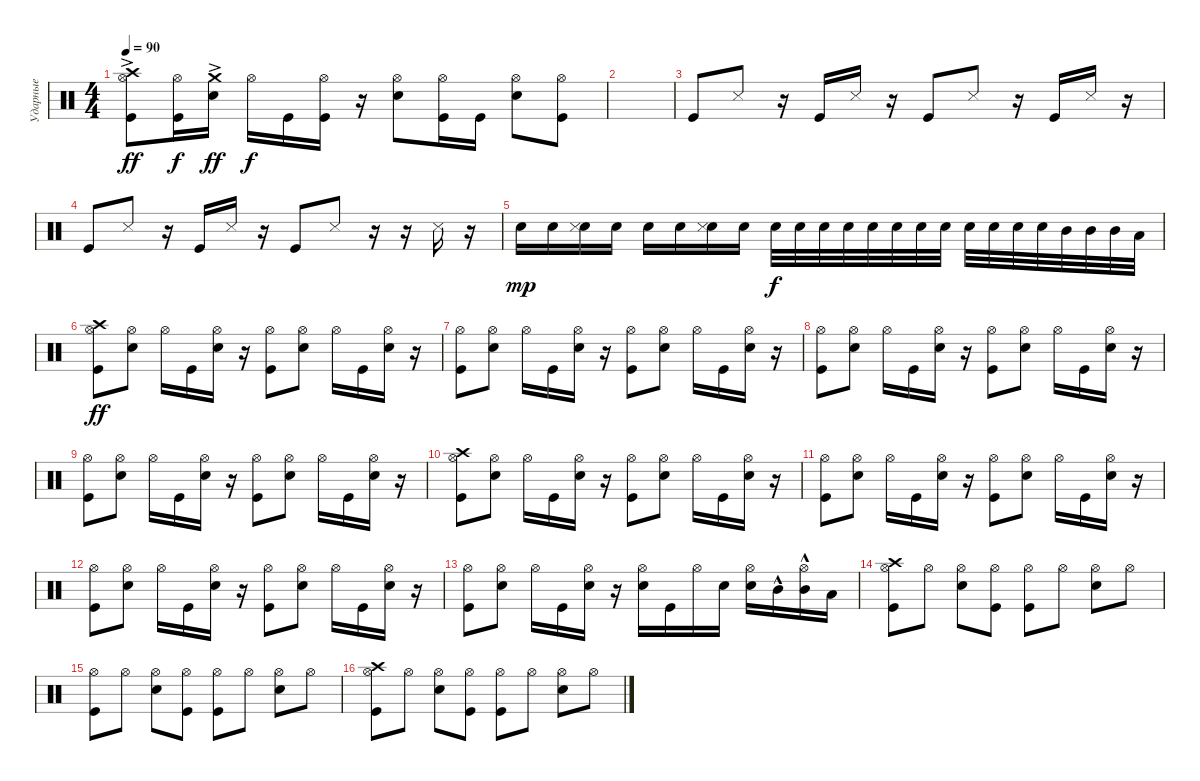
\track ("Ударные" "Ударные") {instrument percussion}
\staff {score}
\articulation defaults
\ts (4 4)
\tempo 90
\clef neutral
\ks c
("Kick (hit)" "Hi-Hat (open)" "Crash high (hit)"{ac}).8{dy ff} ("Kick (hit)" "Hi-Hat (open)").16{dy f} ("Electric Snare (hit)" "Crash medium (hit)"{ac}).16{dy ff} "Hi-Hat (open)".16{dy f} "Kick (hit)".16 ("Kick (hit)" "Hi-Hat (open)").16 r.16 ("Electric Snare (hit)" "Hi-Hat (open)").8 ("Kick (hit)" "Hi-Hat (open)").16 "Kick (hit)".16 ("Electric Snare (hit)" "Hi-Hat (open)").8 ("Kick (hit)" "Hi-Hat (open)").8 |
|
"Kick (hit)".8 "Snare (side stick) 3".8 r.16 "Kick (hit)".16 "Snare (side stick) 3".16 r.16 "Kick (hit)".8 "Snare (side stick) 3".8 r.16 "Kick (hit)".16 "Snare (side stick) 3".16 r.16 |
"Kick (hit)".8 "Snare (side stick) 3".8 r.16 "Kick (hit)".16 "Snare (side stick) 3".16 r.16 "Kick (hit)".8 "Snare (side stick) 3".8 r.16 r.16 "Snare (side stick) 3".16 r.16 |
"Snare (hit) 2".16{dy mp} "Snare (hit) 2".16 ("Snare (hit) 2" "Snare (side stick) 3").16 "Snare (hit) 2".16 "Snare (hit) 2".16 "Snare (hit) 2".16 ("Snare (hit) 2" "Snare (side stick) 3").16 "Snare (hit) 2".16 "Snare (hit) 2".32{dy f} "Snare (hit) 2".32 "Snare (hit) 2".32 "Snare (hit) 2".32 "Snare (hit) 2".32 "Snare (hit) 2".32 "Snare (hit) 2".32 "Snare (hit) 2".32 "Snare (hit) 2".32 "Snare (hit) 2".32 "Snare (hit) 2".32 "Snare (hit) 2".32 "Mid Tom (hit)".32 "Mid Tom (hit)".32 "Mid Tom (hit)".32 "Low Tom (hit)".32 |
("Kick (hit)" "Hi-Hat (open)" "Crash high (hit)").8{dy ff} ("Electric Snare (hit)" "Hi-Hat (open)").8 "Hi-Hat (open)".16 "Kick (hit)".16 ("Electric Snare (hit)" "Hi-Hat (open)").16 r.16 ("Kick (hit)" "Hi-Hat (open)").8 ("Electric Snare (hit)" "Hi-Hat (open)").8 "Hi-Hat (open)".16 "Kick (hit)".16 ("Electric Snare (hit)" "Hi-Hat (open)").16 r.16 |
("Kick (hit)" "Hi-Hat (open)").8 ("Electric Snare (hit)" "Hi-Hat (open)").8 "Hi-Hat (open)".16 "Kick (hit)".16 ("Electric Snare (hit)" "Hi-Hat (open)").16 r.16 ("Kick (hit)" "Hi-Hat (open)").8 ("Electric Snare (hit)" "Hi-Hat (open)").8 "Hi-Hat (open)".16 "Kick (hit)".16 ("Electric Snare (hit)" "Hi-Hat (open)").16 r.16 |
("Kick (hit)" "Hi-Hat (open)").8 ("Electric Snare (hit)" "Hi-Hat (open)").8 "Hi-Hat (open)".16 "Kick (hit)".16 ("Electric Snare (hit)" "Hi-Hat (open)").16 r.16 ("Kick (hit)" "Hi-Hat (open)").8 ("Electric Snare (hit)" "Hi-Hat (open)").8 "Hi-Hat (open)".16 "Kick (hit)".16 ("Electric Snare (hit)" "Hi-Hat (open)").16 r.16 |
("Kick (hit)" "Hi-Hat (open)").8 ("Electric Snare (hit)" "Hi-Hat (open)").8 "Hi-Hat (open)".16 "Kick (hit)".16 ("Electric Snare (hit)" "Hi-Hat (open)").16 r.16 ("Kick (hit)" "Hi-Hat (open)").8 ("Electric Snare (hit)" "Hi-Hat (open)").8 "Hi-Hat (open)".16 "Kick (hit)".16 ("Electric Snare (hit)" "Hi-Hat (open)").16 r.16 |
("Kick (hit)" "Hi-Hat (open)" "Crash high (hit)").8 ("Electric Snare (hit)" "Hi-Hat (open)").8 "Hi-Hat (open)".16 "Kick (hit)".16 ("Electric Snare (hit)" "Hi-Hat (open)").16 r.16 ("Kick (hit)" "Hi-Hat (open)").8 ("Electric Snare (hit)" "Hi-Hat (open)").8 "Hi-Hat (open)".16 "Kick (hit)".16 ("Electric Snare (hit)" "Hi-Hat (open)").16 r.16 |
("Kick (hit)" "Hi-Hat (open)").8 ("Electric Snare (hit)" "Hi-Hat (open)").8 "Hi-Hat (open)".16 "Kick (hit)".16 ("Electric Snare (hit)" "Hi-Hat (open)").16 r.16 ("Kick (hit)" "Hi-Hat (open)").8 ("Electric Snare (hit)" "Hi-Hat (open)").8 "Hi-Hat (open)".16 "Kick (hit)".16 ("Electric Snare (hit)" "Hi-Hat (open)").16 r.16 |
("Kick (hit)" "Hi-Hat (open)").8 ("Electric Snare (hit)" "Hi-Hat (open)").8 "Hi-Hat (open)".16 "Kick (hit)".16 ("Electric Snare (hit)" "Hi-Hat (open)").16 r.16 ("Kick (hit)" "Hi-Hat (open)").8 ("Electric Snare (hit)" "Hi-Hat (open)").8 "Hi-Hat (open)".16 "Kick (hit)".16 ("Electric Snare (hit)" "Hi-Hat (open)").16 r.16 |
("Kick (hit)" "Hi-Hat (open)").8 ("Electric Snare (hit)" "Hi-Hat (open)").8 "Hi-Hat (open)".16 "Kick (hit)".16 ("Electric Snare (hit)" "Hi-Hat (open)").16 r.16 ("Electric Snare (hit)" "Hi-Hat (open)").16 "Kick (hit)".16 "Hi-Hat (open)".16 "Electric Snare (hit)".16 ("Electric Snare (hit)" "Hi-Hat (open)").16 "Mid Tom (hit)"{hac}.16 ("Mid Tom (hit)"{hac} "Hi-Hat (open)").16 "Low Tom (hit)".16 |
("Kick (hit)" "Hi-Hat (open)" "Crash high (hit)").8 "Hi-Hat (open)".8 ("Electric Snare (hit)" "Hi-Hat (open)").8 ("Kick (hit)" "Hi-Hat (open)").8 ("Kick (hit)" "Hi-Hat (open)").8 "Hi-Hat (open)".8 ("Electric Snare (hit)" "Hi-Hat (open)").8 "Hi-Hat (open)".8 |
("Kick (hit)" "Hi-Hat (open)").8 "Hi-Hat (open)".8 ("Electric Snare (hit)" "Hi-Hat (open)").8 ("Kick (hit)" "Hi-Hat (open)").8 ("Kick (hit)" "Hi-Hat (open)").8 "Hi-Hat (open)".8 ("Electric Snare (hit)" "Hi-Hat (open)").8 "Hi-Hat (open)".8 |
("Kick (hit)" "Hi-Hat (open)" "Crash high (hit)").8 "Hi-Hat (open)".8 ("Electric Snare (hit)" "Hi-Hat (open)").8 ("Kick (hit)" "Hi-Hat (open)").8 ("Kick (hit)" "Hi-Hat (open)").8 "Hi-Hat (open)".8 ("Electric Snare (hit)" "Hi-Hat (open)").8 "Hi-Hat (open)".8
